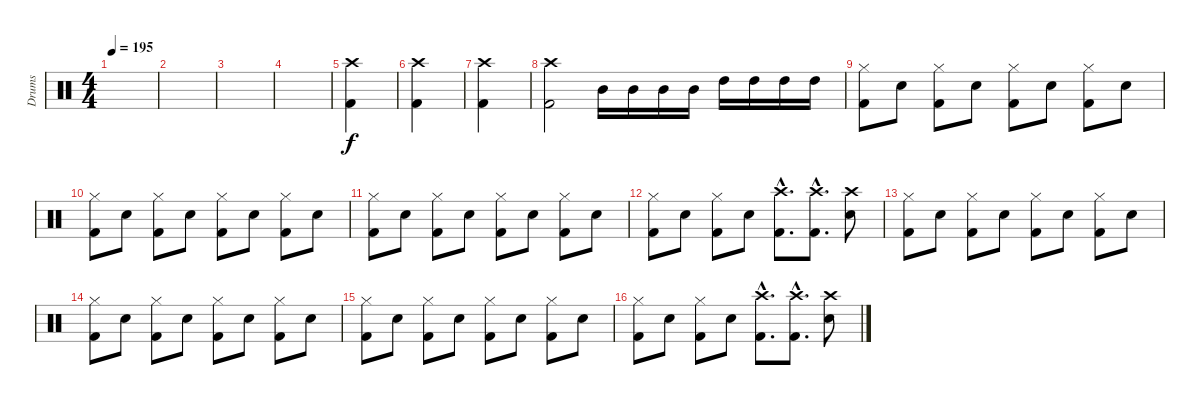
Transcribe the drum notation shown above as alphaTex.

\track ("Drums" "Drums") {instrument percussion}
\staff {score}
\articulation defaults
\ts (4 4)
\tempo 195
\clef neutral
\ks c
|
|
|
|
("Crash high (hit)" "Kick (hit) 2").4 |
("Crash high (hit)" "Kick (hit) 2").4 |
("Crash high (hit)" "Kick (hit) 2").4 |
("Crash high (hit)" "Kick (hit) 2").2 "Mid Tom (hit)".16 "Mid Tom (hit)".16 "Mid Tom (hit)".16 "Mid Tom (hit)".16 "High Tom (hit)".16 "High Tom (hit)".16 "High Tom (hit)".16 "High Tom (hit)".16 |
("Kick (hit) 2" "Hi-Hat (closed)").8 "Snare (hit) 2".8 ("Kick (hit) 2" "Hi-Hat (closed)").8 "Snare (hit) 2".8 ("Kick (hit) 2" "Hi-Hat (closed)").8 "Snare (hit) 2".8 ("Kick (hit) 2" "Hi-Hat (closed)").8 "Snare (hit) 2".8 |
("Kick (hit) 2" "Hi-Hat (closed)").8 "Snare (hit) 2".8 ("Kick (hit) 2" "Hi-Hat (closed)").8 "Snare (hit) 2".8 ("Kick (hit) 2" "Hi-Hat (closed)").8 "Snare (hit) 2".8 ("Kick (hit) 2" "Hi-Hat (closed)").8 "Snare (hit) 2".8 |
("Kick (hit) 2" "Hi-Hat (closed)").8 "Snare (hit) 2".8 ("Kick (hit) 2" "Hi-Hat (closed)").8 "Snare (hit) 2".8 ("Kick (hit) 2" "Hi-Hat (closed)").8 "Snare (hit) 2".8 ("Kick (hit) 2" "Hi-Hat (closed)").8 "Snare (hit) 2".8 |
("Kick (hit) 2" "Hi-Hat (closed)").8 "Snare (hit) 2".8 ("Kick (hit) 2" "Hi-Hat (closed)").8 "Snare (hit) 2".8 ("Kick (hit) 2"{hac} "Crash high (hit)"{hac}).8{d} ("Kick (hit) 2"{hac} "Crash high (hit)"{hac}).8{d} ("Snare (hit) 2" "Crash high (hit)").8 |
("Kick (hit) 2" "Hi-Hat (closed)").8 "Snare (hit) 2".8 ("Kick (hit) 2" "Hi-Hat (closed)").8 "Snare (hit) 2".8 ("Kick (hit) 2" "Hi-Hat (closed)").8 "Snare (hit) 2".8 ("Kick (hit) 2" "Hi-Hat (closed)").8 "Snare (hit) 2".8 |
("Kick (hit) 2" "Hi-Hat (closed)").8 "Snare (hit) 2".8 ("Kick (hit) 2" "Hi-Hat (closed)").8 "Snare (hit) 2".8 ("Kick (hit) 2" "Hi-Hat (closed)").8 "Snare (hit) 2".8 ("Kick (hit) 2" "Hi-Hat (closed)").8 "Snare (hit) 2".8 |
("Kick (hit) 2" "Hi-Hat (closed)").8 "Snare (hit) 2".8 ("Kick (hit) 2" "Hi-Hat (closed)").8 "Snare (hit) 2".8 ("Kick (hit) 2" "Hi-Hat (closed)").8 "Snare (hit) 2".8 ("Kick (hit) 2" "Hi-Hat (closed)").8 "Snare (hit) 2".8 |
("Kick (hit) 2" "Hi-Hat (closed)").8 "Snare (hit) 2".8 ("Kick (hit) 2" "Hi-Hat (closed)").8 "Snare (hit) 2".8 ("Kick (hit) 2"{hac} "Crash high (hit)"{hac}).8{d} ("Kick (hit) 2"{hac} "Crash high (hit)"{hac}).8{d} ("Snare (hit) 2" "Crash high (hit)").8
